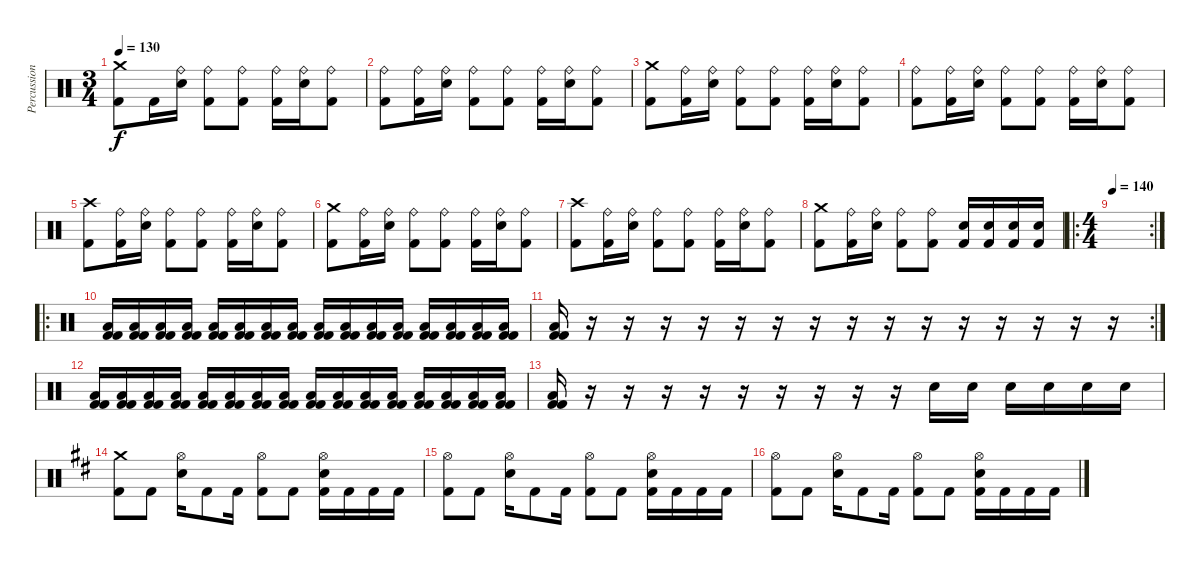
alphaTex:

\track ("Percussion" "Percussion") {instrument percussion}
\staff {score}
\articulation defaults
\ts (3 4)
\tempo 130
\clef neutral
\ks c
("Crash medium (hit)" "Kick (hit) 2").8{dy f} "Kick (hit) 2".16 ("Ride (bell)" "Electric Snare (hit)").16 ("Ride (bell)" "Kick (hit) 2").8 ("Ride (bell)" "Kick (hit) 2").8 ("Ride (bell)" "Kick (hit) 2").16 ("Ride (bell)" "Electric Snare (hit)").16 ("Ride (bell)" "Kick (hit) 2").8 |
("Ride (bell)" "Kick (hit) 2").8 ("Ride (bell)" "Kick (hit) 2").16 ("Ride (bell)" "Electric Snare (hit)").16 ("Ride (bell)" "Kick (hit) 2").8 ("Ride (bell)" "Kick (hit) 2").8 ("Ride (bell)" "Kick (hit) 2").16 ("Ride (bell)" "Electric Snare (hit)").16 ("Ride (bell)" "Kick (hit) 2").8 |
("Crash medium (hit)" "Kick (hit) 2").8 ("Ride (bell)" "Kick (hit) 2").16 ("Ride (bell)" "Electric Snare (hit)").16 ("Ride (bell)" "Kick (hit) 2").8 ("Ride (bell)" "Kick (hit) 2").8 ("Ride (bell)" "Kick (hit) 2").16 ("Ride (bell)" "Electric Snare (hit)").16 ("Ride (bell)" "Kick (hit) 2").8 |
("Ride (bell)" "Kick (hit) 2").8 ("Ride (bell)" "Kick (hit) 2").16 ("Ride (bell)" "Electric Snare (hit)").16 ("Ride (bell)" "Kick (hit) 2").8 ("Ride (bell)" "Kick (hit) 2").8 ("Ride (bell)" "Kick (hit) 2").16 ("Ride (bell)" "Electric Snare (hit)").16 ("Ride (bell)" "Kick (hit) 2").8 |
("Crash high (hit)" "Kick (hit) 2").8 ("Ride (bell)" "Kick (hit) 2").16 ("Ride (bell)" "Electric Snare (hit)").16 ("Ride (bell)" "Kick (hit) 2").8 ("Ride (bell)" "Kick (hit) 2").8 ("Ride (bell)" "Kick (hit) 2").16 ("Ride (bell)" "Electric Snare (hit)").16 ("Ride (bell)" "Kick (hit) 2").8 |
("Crash medium (hit)" "Kick (hit) 2").8 ("Ride (bell)" "Kick (hit) 2").16 ("Ride (bell)" "Electric Snare (hit)").16 ("Ride (bell)" "Kick (hit) 2").8 ("Ride (bell)" "Kick (hit) 2").8 ("Ride (bell)" "Kick (hit) 2").16 ("Ride (bell)" "Electric Snare (hit)").16 ("Ride (bell)" "Kick (hit) 2").8 |
("Crash high (hit)" "Kick (hit) 2").8 ("Ride (bell)" "Kick (hit) 2").16 ("Ride (bell)" "Electric Snare (hit)").16 ("Ride (bell)" "Kick (hit) 2").8 ("Ride (bell)" "Kick (hit) 2").8 ("Ride (bell)" "Kick (hit) 2").16 ("Ride (bell)" "Electric Snare (hit)").16 ("Ride (bell)" "Kick (hit) 2").8 |
("Crash medium (hit)" "Kick (hit) 2").8 ("Ride (bell)" "Kick (hit) 2").16 ("Ride (bell)" "Electric Snare (hit)").16 ("Ride (bell)" "Kick (hit) 2").8 ("Ride (bell)" "Kick (hit) 2").8 ("Electric Snare (hit)" "Kick (hit) 2").16 ("Electric Snare (hit)" "Kick (hit) 2").16 ("Electric Snare (hit)" "Kick (hit) 2").16 ("Electric Snare (hit)" "Kick (hit) 2").16 |
\ro
\rc 2
\ts (4 4)
\tempo 140
|
\ro
("Low Floor Tom (hit)" "Kick (hit) 2" "Kick (hit) 2").16 ("Low Floor Tom (hit)" "Kick (hit) 2" "Kick (hit) 2").16 ("Low Floor Tom (hit)" "Kick (hit) 2" "Kick (hit) 2").16 ("Low Floor Tom (hit)" "Kick (hit) 2" "Kick (hit) 2").16 ("Low Floor Tom (hit)" "Kick (hit) 2" "Kick (hit) 2").16 ("Low Floor Tom (hit)" "Kick (hit) 2" "Kick (hit) 2").16 ("Low Floor Tom (hit)" "Kick (hit) 2" "Kick (hit) 2").16 ("Low Floor Tom (hit)" "Kick (hit) 2" "Kick (hit) 2").16 ("Low Floor Tom (hit)" "Kick (hit) 2" "Kick (hit) 2").16 ("Low Floor Tom (hit)" "Kick (hit) 2" "Kick (hit) 2").16 ("Low Floor Tom (hit)" "Kick (hit) 2" "Kick (hit) 2").16 ("Low Floor Tom (hit)" "Kick (hit) 2" "Kick (hit) 2").16 ("Low Floor Tom (hit)" "Kick (hit) 2" "Kick (hit) 2").16 ("Low Floor Tom (hit)" "Kick (hit) 2" "Kick (hit) 2").16 ("Low Floor Tom (hit)" "Kick (hit) 2" "Kick (hit) 2").16 ("Low Floor Tom (hit)" "Kick (hit) 2" "Kick (hit) 2").16 |
\rc 2
("Low Floor Tom (hit)" "Kick (hit) 2" "Kick (hit) 2").16 r.16 r.16 r.16 r.16 r.16 r.16 r.16 r.16 r.16 r.16 r.16 r.16 r.16 r.16 r.16 |
("Low Floor Tom (hit)" "Kick (hit) 2" "Kick (hit) 2").16 ("Low Floor Tom (hit)" "Kick (hit) 2" "Kick (hit) 2").16 ("Low Floor Tom (hit)" "Kick (hit) 2" "Kick (hit) 2").16 ("Low Floor Tom (hit)" "Kick (hit) 2" "Kick (hit) 2").16 ("Low Floor Tom (hit)" "Kick (hit) 2" "Kick (hit) 2").16 ("Low Floor Tom (hit)" "Kick (hit) 2" "Kick (hit) 2").16 ("Low Floor Tom (hit)" "Kick (hit) 2" "Kick (hit) 2").16 ("Low Floor Tom (hit)" "Kick (hit) 2" "Kick (hit) 2").16 ("Low Floor Tom (hit)" "Kick (hit) 2" "Kick (hit) 2").16 ("Low Floor Tom (hit)" "Kick (hit) 2" "Kick (hit) 2").16 ("Low Floor Tom (hit)" "Kick (hit) 2" "Kick (hit) 2").16 ("Low Floor Tom (hit)" "Kick (hit) 2" "Kick (hit) 2").16 ("Low Floor Tom (hit)" "Kick (hit) 2" "Kick (hit) 2").16 ("Low Floor Tom (hit)" "Kick (hit) 2" "Kick (hit) 2").16 ("Low Floor Tom (hit)" "Kick (hit) 2" "Kick (hit) 2").16 ("Low Floor Tom (hit)" "Kick (hit) 2" "Kick (hit) 2").16 |
("Low Floor Tom (hit)" "Kick (hit) 2" "Kick (hit) 2").16 r.16 r.16 r.16 r.16 r.16 r.16 r.16 r.16 r.16 "Electric Snare (hit)".16 "Electric Snare (hit)".16 "Electric Snare (hit)".16 "Electric Snare (hit)".16 "Electric Snare (hit)".16 "Electric Snare (hit)".16 |
\ks d
("Crash medium (hit)" "Kick (hit) 2").8 "Kick (hit) 2".8 ("Hi-Hat (open)" "Electric Snare (hit)").16 "Kick (hit) 2".8 "Kick (hit) 2".16 ("Hi-Hat (open)" "Kick (hit) 2").8 "Kick (hit) 2".8 ("Hi-Hat (open)" "Electric Snare (hit)" "Kick (hit) 2").16 "Kick (hit) 2".16 "Kick (hit) 2".16 "Kick (hit) 2".16 |
("Hi-Hat (open)" "Kick (hit) 2").8 "Kick (hit) 2".8 ("Hi-Hat (open)" "Electric Snare (hit)").16 "Kick (hit) 2".8 "Kick (hit) 2".16 ("Hi-Hat (open)" "Kick (hit) 2").8 "Kick (hit) 2".8 ("Hi-Hat (open)" "Electric Snare (hit)" "Kick (hit) 2").16 "Kick (hit) 2".16 "Kick (hit) 2".16 "Kick (hit) 2".16 |
("Hi-Hat (open)" "Kick (hit) 2").8 "Kick (hit) 2".8 ("Hi-Hat (open)" "Electric Snare (hit)").16 "Kick (hit) 2".8 "Kick (hit) 2".16 ("Hi-Hat (open)" "Kick (hit) 2").8 "Kick (hit) 2".8 ("Hi-Hat (open)" "Electric Snare (hit)" "Kick (hit) 2").16 "Kick (hit) 2".16 "Kick (hit) 2".16 "Kick (hit) 2".16
